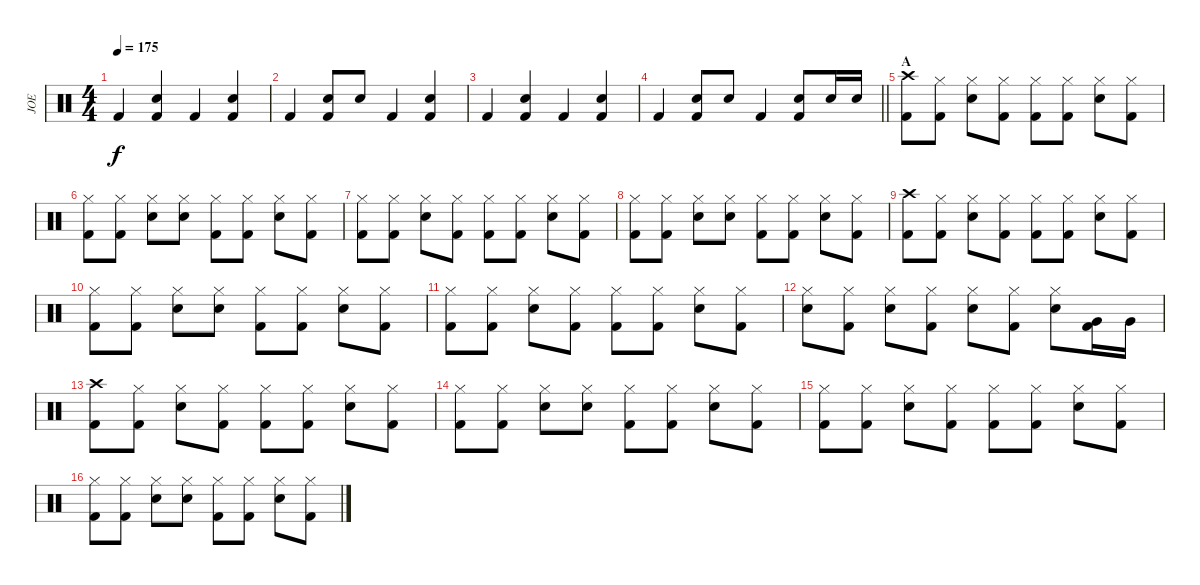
\track ("JOE" "JOE") {instrument percussion}
\staff {score}
\articulation defaults
\ts (4 4)
\tempo 175
\clef neutral
\ks c "Kick (hit) 2".4{dy f}
("Snare (hit) 2" "Kick (hit) 2").4 "Kick (hit) 2".4 ("Snare (hit) 2" "Kick (hit) 2").4 |
"Kick (hit) 2".4 ("Snare (hit) 2" "Kick (hit) 2").8 "Snare (hit) 2".8 "Kick (hit) 2".4 ("Snare (hit) 2" "Kick (hit) 2").4 |
"Kick (hit) 2".4 ("Snare (hit) 2" "Kick (hit) 2").4 "Kick (hit) 2".4 ("Snare (hit) 2" "Kick (hit) 2").4 |
\barLineRight lightlight "Kick (hit) 2".4
("Snare (hit) 2" "Kick (hit) 2").8 "Snare (hit) 2".8 "Kick (hit) 2".4 ("Snare (hit) 2" "Kick (hit) 2").8 "Snare (hit) 2".16 "Snare (hit) 2".16 |
\section ("" "A")
("Crash high (hit)" "Kick (hit) 2").8 ("Hi-Hat (closed)" "Kick (hit) 2").8 ("Hi-Hat (closed)" "Snare (hit) 2").8 ("Hi-Hat (closed)" "Kick (hit) 2").8 ("Hi-Hat (closed)" "Kick (hit) 2").8 ("Hi-Hat (closed)" "Kick (hit) 2").8 ("Hi-Hat (closed)" "Snare (hit) 2").8 ("Hi-Hat (closed)" "Kick (hit) 2").8 |
("Hi-Hat (closed)" "Kick (hit) 2").8 ("Hi-Hat (closed)" "Kick (hit) 2").8 ("Hi-Hat (closed)" "Snare (hit) 2").8 ("Hi-Hat (closed)" "Snare (hit) 2").8 ("Hi-Hat (closed)" "Kick (hit) 2").8 ("Hi-Hat (closed)" "Kick (hit) 2").8 ("Hi-Hat (closed)" "Snare (hit) 2").8 ("Hi-Hat (closed)" "Kick (hit) 2").8 |
("Hi-Hat (closed)" "Kick (hit) 2").8 ("Hi-Hat (closed)" "Kick (hit) 2").8 ("Hi-Hat (closed)" "Snare (hit) 2").8 ("Hi-Hat (closed)" "Kick (hit) 2").8 ("Hi-Hat (closed)" "Kick (hit) 2").8 ("Hi-Hat (closed)" "Kick (hit) 2").8 ("Hi-Hat (closed)" "Snare (hit) 2").8 ("Hi-Hat (closed)" "Kick (hit) 2").8 |
("Hi-Hat (closed)" "Kick (hit) 2").8 ("Hi-Hat (closed)" "Kick (hit) 2").8 ("Hi-Hat (closed)" "Snare (hit) 2").8 ("Hi-Hat (closed)" "Snare (hit) 2").8 ("Hi-Hat (closed)" "Kick (hit) 2").8 ("Hi-Hat (closed)" "Kick (hit) 2").8 ("Hi-Hat (closed)" "Snare (hit) 2").8 ("Hi-Hat (closed)" "Kick (hit) 2").8 |
("Crash high (hit)" "Kick (hit) 2").8 ("Hi-Hat (closed)" "Kick (hit) 2").8 ("Hi-Hat (closed)" "Snare (hit) 2").8 ("Hi-Hat (closed)" "Kick (hit) 2").8 ("Hi-Hat (closed)" "Kick (hit) 2").8 ("Hi-Hat (closed)" "Kick (hit) 2").8 ("Hi-Hat (closed)" "Snare (hit) 2").8 ("Hi-Hat (closed)" "Kick (hit) 2").8 |
("Hi-Hat (closed)" "Kick (hit) 2").8 ("Hi-Hat (closed)" "Kick (hit) 2").8 ("Hi-Hat (closed)" "Snare (hit) 2").8 ("Hi-Hat (closed)" "Snare (hit) 2").8 ("Hi-Hat (closed)" "Kick (hit) 2").8 ("Hi-Hat (closed)" "Kick (hit) 2").8 ("Hi-Hat (closed)" "Snare (hit) 2").8 ("Hi-Hat (closed)" "Kick (hit) 2").8 |
("Hi-Hat (closed)" "Kick (hit) 2").8 ("Hi-Hat (closed)" "Kick (hit) 2").8 ("Hi-Hat (closed)" "Snare (hit) 2").8 ("Hi-Hat (closed)" "Kick (hit) 2").8 ("Hi-Hat (closed)" "Kick (hit) 2").8 ("Hi-Hat (closed)" "Kick (hit) 2").8 ("Hi-Hat (closed)" "Snare (hit) 2").8 ("Hi-Hat (closed)" "Kick (hit) 2").8 |
("Hi-Hat (closed)" "Snare (hit) 2").8 ("Hi-Hat (closed)" "Kick (hit) 2").8 ("Hi-Hat (closed)" "Snare (hit) 2").8 ("Hi-Hat (closed)" "Kick (hit) 2").8 ("Hi-Hat (closed)" "Snare (hit) 2").8 ("Hi-Hat (closed)" "Kick (hit) 2").8 ("Hi-Hat (closed)" "Snare (hit) 2").8 ("Very Low Tom (hit)" "Kick (hit) 2").16 "Very Low Tom (hit)".16 |
("Crash high (hit)" "Kick (hit) 2").8 ("Hi-Hat (closed)" "Kick (hit) 2").8 ("Hi-Hat (closed)" "Snare (hit) 2").8 ("Hi-Hat (closed)" "Kick (hit) 2").8 ("Hi-Hat (closed)" "Kick (hit) 2").8 ("Hi-Hat (closed)" "Kick (hit) 2").8 ("Hi-Hat (closed)" "Snare (hit) 2").8 ("Hi-Hat (closed)" "Kick (hit) 2").8 |
("Hi-Hat (closed)" "Kick (hit) 2").8 ("Hi-Hat (closed)" "Kick (hit) 2").8 ("Hi-Hat (closed)" "Snare (hit) 2").8 ("Hi-Hat (closed)" "Snare (hit) 2").8 ("Hi-Hat (closed)" "Kick (hit) 2").8 ("Hi-Hat (closed)" "Kick (hit) 2").8 ("Hi-Hat (closed)" "Snare (hit) 2").8 ("Hi-Hat (closed)" "Kick (hit) 2").8 |
("Hi-Hat (closed)" "Kick (hit) 2").8 ("Hi-Hat (closed)" "Kick (hit) 2").8 ("Hi-Hat (closed)" "Snare (hit) 2").8 ("Hi-Hat (closed)" "Kick (hit) 2").8 ("Hi-Hat (closed)" "Kick (hit) 2").8 ("Hi-Hat (closed)" "Kick (hit) 2").8 ("Hi-Hat (closed)" "Snare (hit) 2").8 ("Hi-Hat (closed)" "Kick (hit) 2").8 |
("Hi-Hat (closed)" "Kick (hit) 2").8 ("Hi-Hat (closed)" "Kick (hit) 2").8 ("Hi-Hat (closed)" "Snare (hit) 2").8 ("Hi-Hat (closed)" "Snare (hit) 2").8 ("Hi-Hat (closed)" "Kick (hit) 2").8 ("Hi-Hat (closed)" "Kick (hit) 2").8 ("Hi-Hat (closed)" "Snare (hit) 2").8 ("Hi-Hat (closed)" "Kick (hit) 2").8
